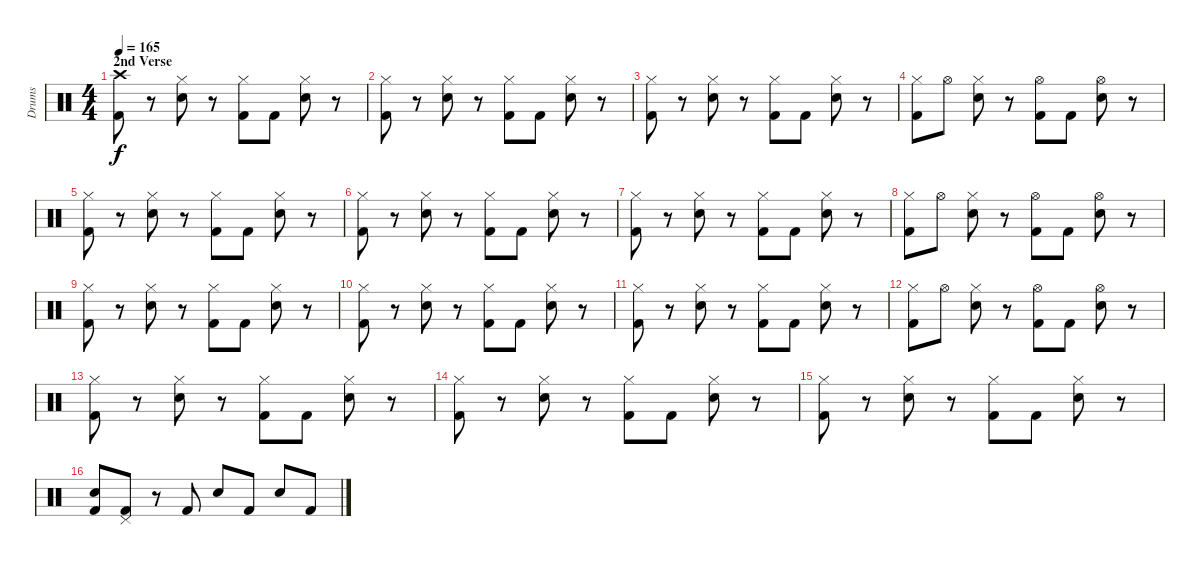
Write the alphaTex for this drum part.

\track ("Drums" "Drums") {instrument percussion}
\staff {score}
\articulation defaults
\ts (4 4)
\section ("" "2nd Verse")
\tempo 165
\clef neutral
\ks c
("Crash high (hit)" "Kick (hit) 2").8{dy f} r.8 ("Hi-Hat (closed)" "Electric Snare (hit)").8 r.8 ("Hi-Hat (closed)" "Kick (hit) 2").8 "Kick (hit) 2".8 ("Hi-Hat (closed)" "Electric Snare (hit)").8 r.8 |
("Hi-Hat (closed)" "Kick (hit) 2").8 r.8 ("Hi-Hat (closed)" "Electric Snare (hit)").8 r.8 ("Hi-Hat (closed)" "Kick (hit) 2").8 "Kick (hit) 2".8 ("Hi-Hat (closed)" "Electric Snare (hit)").8 r.8 |
("Hi-Hat (closed)" "Kick (hit) 2").8 r.8 ("Hi-Hat (closed)" "Electric Snare (hit)").8 r.8 ("Hi-Hat (closed)" "Kick (hit) 2").8 "Kick (hit) 2".8 ("Hi-Hat (closed)" "Electric Snare (hit)").8 r.8 |
("Hi-Hat (closed)" "Kick (hit) 2").8 "Hi-Hat (open)".8 ("Hi-Hat (closed)" "Electric Snare (hit)").8 r.8 ("Hi-Hat (open)" "Kick (hit) 2").8 "Kick (hit) 2".8 ("Hi-Hat (open)" "Electric Snare (hit)").8 r.8 |
("Hi-Hat (closed)" "Kick (hit) 2").8 r.8 ("Hi-Hat (closed)" "Electric Snare (hit)").8 r.8 ("Hi-Hat (closed)" "Kick (hit) 2").8 "Kick (hit) 2".8 ("Hi-Hat (closed)" "Electric Snare (hit)").8 r.8 |
("Hi-Hat (closed)" "Kick (hit) 2").8 r.8 ("Hi-Hat (closed)" "Electric Snare (hit)").8 r.8 ("Hi-Hat (closed)" "Kick (hit) 2").8 "Kick (hit) 2".8 ("Hi-Hat (closed)" "Electric Snare (hit)").8 r.8 |
("Hi-Hat (closed)" "Kick (hit) 2").8 r.8 ("Hi-Hat (closed)" "Electric Snare (hit)").8 r.8 ("Hi-Hat (closed)" "Kick (hit) 2").8 "Kick (hit) 2".8 ("Hi-Hat (closed)" "Electric Snare (hit)").8 r.8 |
("Hi-Hat (closed)" "Kick (hit) 2").8 "Hi-Hat (open)".8 ("Hi-Hat (closed)" "Electric Snare (hit)").8 r.8 ("Hi-Hat (open)" "Kick (hit) 2").8 "Kick (hit) 2".8 ("Hi-Hat (open)" "Electric Snare (hit)").8 r.8 |
("Hi-Hat (closed)" "Kick (hit) 2").8 r.8 ("Hi-Hat (closed)" "Electric Snare (hit)").8 r.8 ("Hi-Hat (closed)" "Kick (hit) 2").8 "Kick (hit) 2".8 ("Hi-Hat (closed)" "Electric Snare (hit)").8 r.8 |
("Hi-Hat (closed)" "Kick (hit) 2").8 r.8 ("Hi-Hat (closed)" "Electric Snare (hit)").8 r.8 ("Hi-Hat (closed)" "Kick (hit) 2").8 "Kick (hit) 2".8 ("Hi-Hat (closed)" "Electric Snare (hit)").8 r.8 |
("Hi-Hat (closed)" "Kick (hit) 2").8 r.8 ("Hi-Hat (closed)" "Electric Snare (hit)").8 r.8 ("Hi-Hat (closed)" "Kick (hit) 2").8 "Kick (hit) 2".8 ("Hi-Hat (closed)" "Electric Snare (hit)").8 r.8 |
("Hi-Hat (closed)" "Kick (hit) 2").8 "Hi-Hat (open)".8 ("Hi-Hat (closed)" "Electric Snare (hit)").8 r.8 ("Hi-Hat (open)" "Kick (hit) 2").8 "Kick (hit) 2".8 ("Hi-Hat (open)" "Electric Snare (hit)").8 r.8 |
("Hi-Hat (closed)" "Kick (hit) 2").8 r.8 ("Hi-Hat (closed)" "Electric Snare (hit)").8 r.8 ("Hi-Hat (closed)" "Kick (hit) 2").8 "Kick (hit) 2".8 ("Hi-Hat (closed)" "Electric Snare (hit)").8 r.8 |
("Hi-Hat (closed)" "Kick (hit) 2").8 r.8 ("Hi-Hat (closed)" "Electric Snare (hit)").8 r.8 ("Hi-Hat (closed)" "Kick (hit) 2").8 "Kick (hit) 2".8 ("Hi-Hat (closed)" "Electric Snare (hit)").8 r.8 |
("Hi-Hat (closed)" "Kick (hit) 2").8 r.8 ("Hi-Hat (closed)" "Electric Snare (hit)").8 r.8 ("Hi-Hat (closed)" "Kick (hit) 2").8 "Kick (hit) 2".8 ("Hi-Hat (closed)" "Electric Snare (hit)").8 r.8 |
("Electric Snare (hit)" "Kick (hit) 2").8 ("Pedal Hi-Hat (hit)" "Kick (hit) 2").8 r.8 "Kick (hit) 2".8 "Electric Snare (hit)".8 "Kick (hit) 2".8 "Electric Snare (hit)".8 "Kick (hit) 2".8
